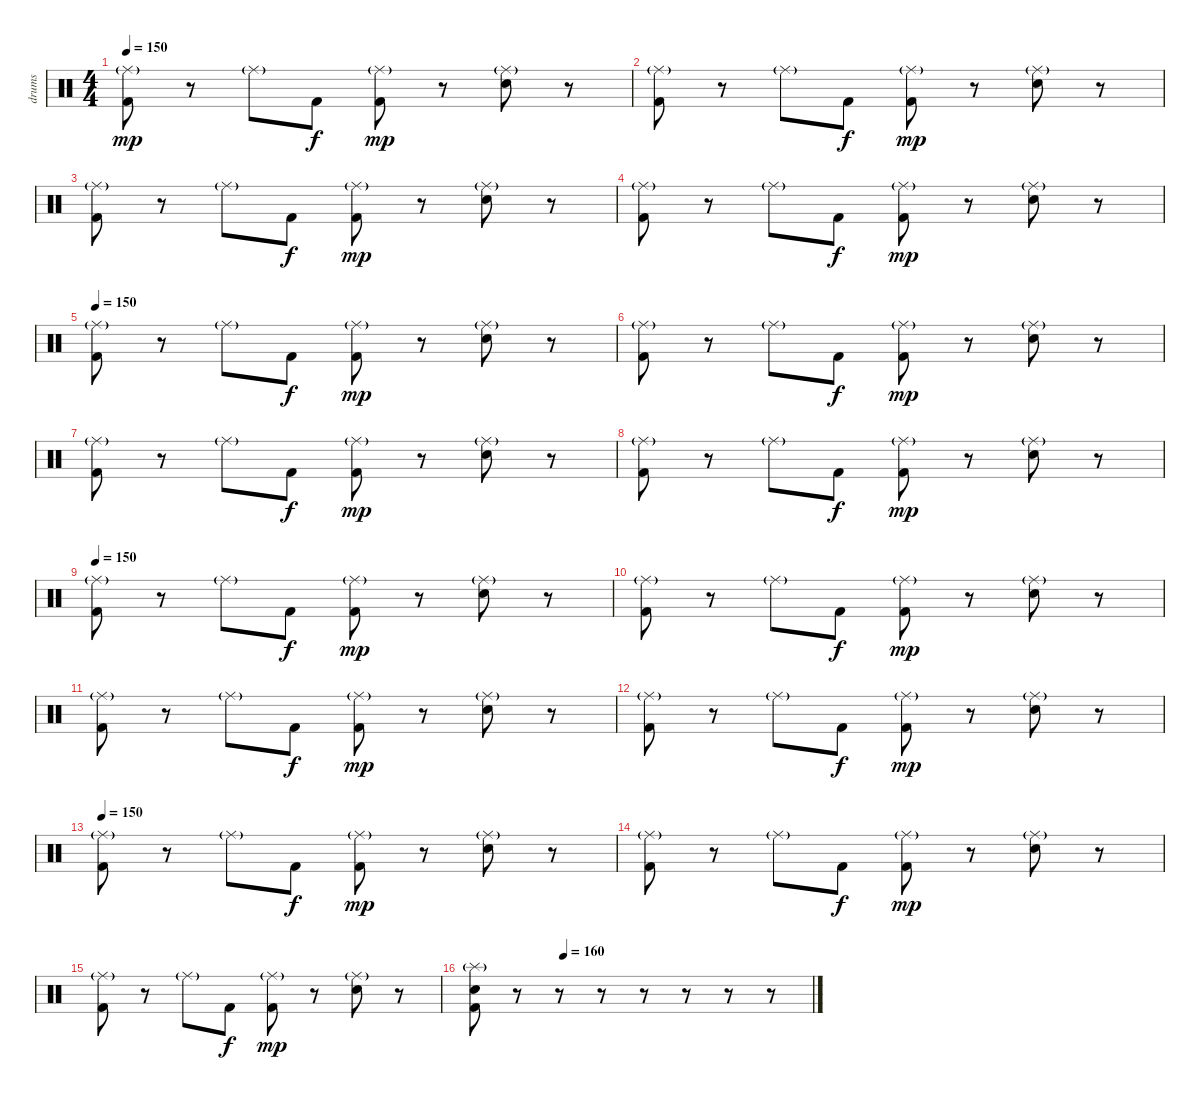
\track ("drums" "drums") {instrument percussion}
\staff {score}
\articulation defaults
\ts (4 4)
\tempo 150
\clef neutral
\ks c
("Ride (middle)"{g} "Kick (hit) 2").8{dy mp} r.8 "Ride (middle)"{g}.8 "Kick (hit) 2".8{dy f} ("Ride (middle)"{g} "Kick (hit) 2").8{dy mp} r.8 ("Ride (middle)"{g} "Electric Snare (hit)").8 r.8 |
("Ride (middle)"{g} "Kick (hit) 2").8 r.8 "Ride (middle)"{g}.8 "Kick (hit) 2".8{dy f} ("Ride (middle)"{g} "Kick (hit) 2").8{dy mp} r.8 ("Ride (middle)"{g} "Electric Snare (hit)").8 r.8 |
("Ride (middle)"{g} "Kick (hit) 2").8 r.8 "Ride (middle)"{g}.8 "Kick (hit) 2".8{dy f} ("Ride (middle)"{g} "Kick (hit) 2").8{dy mp} r.8 ("Ride (middle)"{g} "Electric Snare (hit)").8 r.8 |
("Ride (middle)"{g} "Kick (hit) 2").8 r.8 "Ride (middle)"{g}.8 "Kick (hit) 2".8{dy f} ("Ride (middle)"{g} "Kick (hit) 2").8{dy mp} r.8 ("Ride (middle)"{g} "Electric Snare (hit)").8 r.8 |
\tempo 150
("Ride (middle)"{g} "Kick (hit) 2").8 r.8 "Ride (middle)"{g}.8 "Kick (hit) 2".8{dy f} ("Ride (middle)"{g} "Kick (hit) 2").8{dy mp} r.8 ("Ride (middle)"{g} "Electric Snare (hit)").8 r.8 |
("Ride (middle)"{g} "Kick (hit) 2").8 r.8 "Ride (middle)"{g}.8 "Kick (hit) 2".8{dy f} ("Ride (middle)"{g} "Kick (hit) 2").8{dy mp} r.8 ("Ride (middle)"{g} "Electric Snare (hit)").8 r.8 |
("Ride (middle)"{g} "Kick (hit) 2").8 r.8 "Ride (middle)"{g}.8 "Kick (hit) 2".8{dy f} ("Ride (middle)"{g} "Kick (hit) 2").8{dy mp} r.8 ("Ride (middle)"{g} "Electric Snare (hit)").8 r.8 |
("Ride (middle)"{g} "Kick (hit) 2").8 r.8 "Ride (middle)"{g}.8 "Kick (hit) 2".8{dy f} ("Ride (middle)"{g} "Kick (hit) 2").8{dy mp} r.8 ("Ride (middle)"{g} "Electric Snare (hit)").8 r.8 |
\tempo 150
("Ride (middle)"{g} "Kick (hit) 2").8 r.8 "Ride (middle)"{g}.8 "Kick (hit) 2".8{dy f} ("Ride (middle)"{g} "Kick (hit) 2").8{dy mp} r.8 ("Ride (middle)"{g} "Electric Snare (hit)").8 r.8 |
("Ride (middle)"{g} "Kick (hit) 2").8 r.8 "Ride (middle)"{g}.8 "Kick (hit) 2".8{dy f} ("Ride (middle)"{g} "Kick (hit) 2").8{dy mp} r.8 ("Ride (middle)"{g} "Electric Snare (hit)").8 r.8 |
("Ride (middle)"{g} "Kick (hit) 2").8 r.8 "Ride (middle)"{g}.8 "Kick (hit) 2".8{dy f} ("Ride (middle)"{g} "Kick (hit) 2").8{dy mp} r.8 ("Ride (middle)"{g} "Electric Snare (hit)").8 r.8 |
("Ride (middle)"{g} "Kick (hit) 2").8 r.8 "Ride (middle)"{g}.8 "Kick (hit) 2".8{dy f} ("Ride (middle)"{g} "Kick (hit) 2").8{dy mp} r.8 ("Ride (middle)"{g} "Electric Snare (hit)").8 r.8 |
\tempo 150
("Ride (middle)"{g} "Kick (hit) 2").8 r.8 "Ride (middle)"{g}.8 "Kick (hit) 2".8{dy f} ("Ride (middle)"{g} "Kick (hit) 2").8{dy mp} r.8 ("Ride (middle)"{g} "Electric Snare (hit)").8 r.8 |
("Ride (middle)"{g} "Kick (hit) 2").8 r.8 "Ride (middle)"{g}.8 "Kick (hit) 2".8{dy f} ("Ride (middle)"{g} "Kick (hit) 2").8{dy mp} r.8 ("Ride (middle)"{g} "Electric Snare (hit)").8 r.8 |
("Ride (middle)"{g} "Kick (hit) 2").8 r.8 "Ride (middle)"{g}.8 "Kick (hit) 2".8{dy f} ("Ride (middle)"{g} "Kick (hit) 2").8{dy mp} r.8 ("Ride (middle)"{g} "Electric Snare (hit)").8 r.8 |
\tempo (160 0.265625)
("Splash (hit)"{g} "Electric Snare (hit)" "Kick (hit) 2").8 r.8 r.8 r.8 r.8 r.8 r.8 r.8
